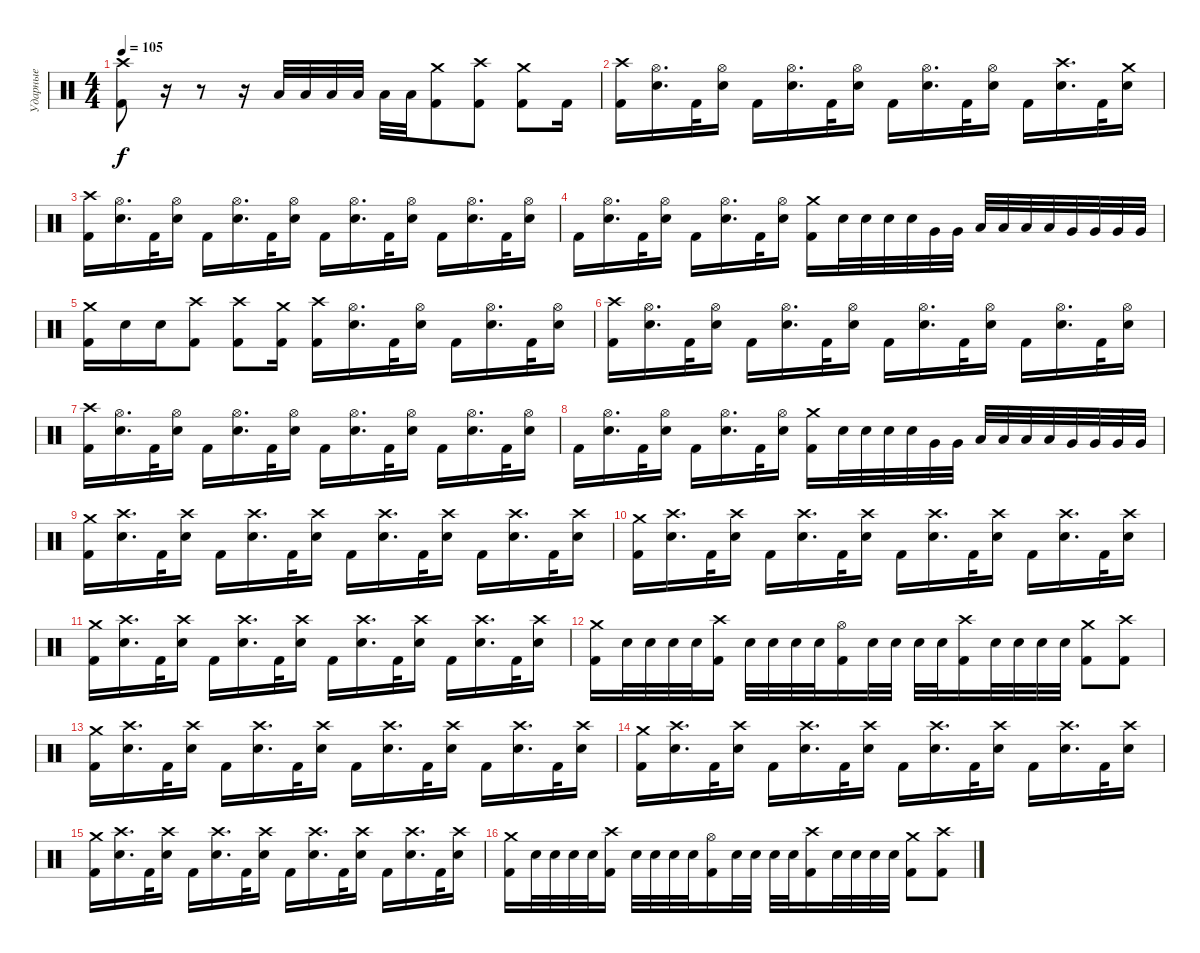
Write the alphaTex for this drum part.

\track ("Ударные" "Ударные") {instrument percussion}
\staff {score}
\articulation defaults
\ts (4 4)
\tempo 105
\clef neutral
\ks c
("Crash high (hit)" "Kick (hit) 2").8{dy f} r.16{volume 0} r.8 r.16 "Low Tom (hit)".32{volume 13} "Low Tom (hit)".32 "Low Tom (hit)".32 "Low Tom (hit)".32 "Low Tom (hit)".32 "Low Tom (hit)".32 ("Crash medium (hit)" "Kick (hit) 2").8 ("Crash high (hit)" "Kick (hit) 2").8 ("Crash medium (hit)" "Kick (hit) 2").8 "Kick (hit) 2".16 |
("Crash high (hit)" "Kick (hit) 2").16 ("Hi-Hat (open)" "Electric Snare (hit)").16{d} "Kick (hit) 2".32 ("Hi-Hat (open)" "Electric Snare (hit)").16 "Kick (hit) 2".16 ("Hi-Hat (open)" "Electric Snare (hit)").16{d} "Kick (hit) 2".32 ("Hi-Hat (open)" "Electric Snare (hit)").16 "Kick (hit) 2".16 ("Hi-Hat (open)" "Electric Snare (hit)").16{d} "Kick (hit) 2".32 ("Hi-Hat (open)" "Electric Snare (hit)").16 "Kick (hit) 2".16 ("Crash high (hit)" "Electric Snare (hit)").16{d} "Kick (hit) 2".32 ("Crash medium (hit)" "Electric Snare (hit)").16 |
("Crash high (hit)" "Kick (hit) 2").16 ("Hi-Hat (open)" "Electric Snare (hit)").16{d} "Kick (hit) 2".32 ("Hi-Hat (open)" "Electric Snare (hit)").16 "Kick (hit) 2".16 ("Hi-Hat (open)" "Electric Snare (hit)").16{d} "Kick (hit) 2".32 ("Hi-Hat (open)" "Electric Snare (hit)").16 "Kick (hit) 2".16 ("Hi-Hat (open)" "Electric Snare (hit)").16{d} "Kick (hit) 2".32 ("Hi-Hat (open)" "Electric Snare (hit)").16 "Kick (hit) 2".16 ("Hi-Hat (open)" "Electric Snare (hit)").16{d} "Kick (hit) 2".32 ("Hi-Hat (open)" "Electric Snare (hit)").16 |
"Kick (hit) 2".16 ("Hi-Hat (open)" "Electric Snare (hit)").16{d} "Kick (hit) 2".32 ("Hi-Hat (open)" "Electric Snare (hit)").16 "Kick (hit) 2".16 ("Hi-Hat (open)" "Electric Snare (hit)").16{d} "Kick (hit) 2".32 ("Hi-Hat (open)" "Electric Snare (hit)").16 ("Crash medium (hit)" "Kick (hit) 2").16 "Electric Snare (hit)".32 "Electric Snare (hit)".32 "Electric Snare (hit)".32 "Electric Snare (hit)".32 "Very Low Tom (hit)".32 "Very Low Tom (hit)".32 "Low Floor Tom (hit)".32 "Low Floor Tom (hit)".32 "Low Floor Tom (hit)".32 "Low Floor Tom (hit)".32 "Very Low Tom (hit)".32 "Very Low Tom (hit)".32 "Very Low Tom (hit)".32 "Very Low Tom (hit)".32 |
("Crash medium (hit)" "Kick (hit) 2").16 "Electric Snare (hit)".16 "Electric Snare (hit)".16 ("Crash high (hit)" "Kick (hit) 2").8 ("Crash high (hit)" "Kick (hit) 2").8 ("Crash medium (hit)" "Kick (hit) 2").16 ("Crash high (hit)" "Kick (hit) 2").16 ("Hi-Hat (open)" "Electric Snare (hit)").16{d} "Kick (hit) 2".32 ("Hi-Hat (open)" "Electric Snare (hit)").16 "Kick (hit) 2".16 ("Hi-Hat (open)" "Electric Snare (hit)").16{d} "Kick (hit) 2".32 ("Hi-Hat (open)" "Electric Snare (hit)").16 |
("Crash high (hit)" "Kick (hit) 2").16 ("Hi-Hat (open)" "Electric Snare (hit)").16{d} "Kick (hit) 2".32 ("Hi-Hat (open)" "Electric Snare (hit)").16 "Kick (hit) 2".16 ("Hi-Hat (open)" "Electric Snare (hit)").16{d} "Kick (hit) 2".32 ("Hi-Hat (open)" "Electric Snare (hit)").16 "Kick (hit) 2".16 ("Hi-Hat (open)" "Electric Snare (hit)").16{d} "Kick (hit) 2".32 ("Hi-Hat (open)" "Electric Snare (hit)").16 "Kick (hit) 2".16 ("Hi-Hat (open)" "Electric Snare (hit)").16{d} "Kick (hit) 2".32 ("Hi-Hat (open)" "Electric Snare (hit)").16 |
("Crash high (hit)" "Kick (hit) 2").16 ("Hi-Hat (open)" "Electric Snare (hit)").16{d} "Kick (hit) 2".32 ("Hi-Hat (open)" "Electric Snare (hit)").16 "Kick (hit) 2".16 ("Hi-Hat (open)" "Electric Snare (hit)").16{d} "Kick (hit) 2".32 ("Hi-Hat (open)" "Electric Snare (hit)").16 "Kick (hit) 2".16 ("Hi-Hat (open)" "Electric Snare (hit)").16{d} "Kick (hit) 2".32 ("Hi-Hat (open)" "Electric Snare (hit)").16 "Kick (hit) 2".16 ("Hi-Hat (open)" "Electric Snare (hit)").16{d} "Kick (hit) 2".32 ("Hi-Hat (open)" "Electric Snare (hit)").16 |
"Kick (hit) 2".16 ("Hi-Hat (open)" "Electric Snare (hit)").16{d} "Kick (hit) 2".32 ("Hi-Hat (open)" "Electric Snare (hit)").16 "Kick (hit) 2".16 ("Hi-Hat (open)" "Electric Snare (hit)").16{d} "Kick (hit) 2".32 ("Hi-Hat (open)" "Electric Snare (hit)").16 ("Crash medium (hit)" "Kick (hit) 2").16 "Electric Snare (hit)".32 "Electric Snare (hit)".32 "Electric Snare (hit)".32 "Electric Snare (hit)".32 "Very Low Tom (hit)".32 "Very Low Tom (hit)".32 "Low Floor Tom (hit)".32 "Low Floor Tom (hit)".32 "Low Floor Tom (hit)".32 "Low Floor Tom (hit)".32 "Very Low Tom (hit)".32 "Very Low Tom (hit)".32 "Very Low Tom (hit)".32 "Very Low Tom (hit)".32 |
("Crash medium (hit)" "Kick (hit) 2").16 ("Crash high (hit)" "Electric Snare (hit)").16{d} "Kick (hit) 2".32 ("Crash high (hit)" "Electric Snare (hit)").16 "Kick (hit) 2".16 ("Crash high (hit)" "Electric Snare (hit)").16{d} "Kick (hit) 2".32 ("Crash high (hit)" "Electric Snare (hit)").16 "Kick (hit) 2".16 ("Crash high (hit)" "Electric Snare (hit)").16{d} "Kick (hit) 2".32 ("Crash high (hit)" "Electric Snare (hit)").16 "Kick (hit) 2".16 ("Crash high (hit)" "Electric Snare (hit)").16{d} "Kick (hit) 2".32 ("Crash high (hit)" "Electric Snare (hit)").16 |
("Crash medium (hit)" "Kick (hit) 2").16 ("Crash high (hit)" "Electric Snare (hit)").16{d} "Kick (hit) 2".32 ("Crash high (hit)" "Electric Snare (hit)").16 "Kick (hit) 2".16 ("Crash high (hit)" "Electric Snare (hit)").16{d} "Kick (hit) 2".32 ("Crash high (hit)" "Electric Snare (hit)").16 "Kick (hit) 2".16 ("Crash high (hit)" "Electric Snare (hit)").16{d} "Kick (hit) 2".32 ("Crash high (hit)" "Electric Snare (hit)").16 "Kick (hit) 2".16 ("Crash high (hit)" "Electric Snare (hit)").16{d} "Kick (hit) 2".32 ("Crash high (hit)" "Electric Snare (hit)").16 |
("Crash medium (hit)" "Kick (hit) 2").16 ("Crash high (hit)" "Electric Snare (hit)").16{d} "Kick (hit) 2".32 ("Crash high (hit)" "Electric Snare (hit)").16 "Kick (hit) 2".16 ("Crash high (hit)" "Electric Snare (hit)").16{d} "Kick (hit) 2".32 ("Crash high (hit)" "Electric Snare (hit)").16 "Kick (hit) 2".16 ("Crash high (hit)" "Electric Snare (hit)").16{d} "Kick (hit) 2".32 ("Crash high (hit)" "Electric Snare (hit)").16 "Kick (hit) 2".16 ("Crash high (hit)" "Electric Snare (hit)").16{d} "Kick (hit) 2".32 ("Crash high (hit)" "Electric Snare (hit)").16 |
("Crash medium (hit)" "Kick (hit) 2").16 "Electric Snare (hit)".32 "Electric Snare (hit)".32 "Electric Snare (hit)".32 "Electric Snare (hit)".32 ("Crash high (hit)" "Kick (hit) 2").16 "Electric Snare (hit)".32 "Electric Snare (hit)".32 "Electric Snare (hit)".32 "Electric Snare (hit)".32 ("Hi-Hat (open)" "Kick (hit) 2").16 "Electric Snare (hit)".32 "Electric Snare (hit)".32 "Electric Snare (hit)".32 "Electric Snare (hit)".32 ("Crash high (hit)" "Kick (hit) 2").16 "Electric Snare (hit)".32 "Electric Snare (hit)".32 "Electric Snare (hit)".32 "Electric Snare (hit)".32 ("Crash medium (hit)" "Kick (hit) 2").8 ("Crash high (hit)" "Kick (hit) 2").8 |
("Crash medium (hit)" "Kick (hit) 2").16 ("Crash high (hit)" "Electric Snare (hit)").16{d} "Kick (hit) 2".32 ("Crash high (hit)" "Electric Snare (hit)").16 "Kick (hit) 2".16 ("Crash high (hit)" "Electric Snare (hit)").16{d} "Kick (hit) 2".32 ("Crash high (hit)" "Electric Snare (hit)").16 "Kick (hit) 2".16 ("Crash high (hit)" "Electric Snare (hit)").16{d} "Kick (hit) 2".32 ("Crash high (hit)" "Electric Snare (hit)").16 "Kick (hit) 2".16 ("Crash high (hit)" "Electric Snare (hit)").16{d} "Kick (hit) 2".32 ("Crash high (hit)" "Electric Snare (hit)").16 |
("Crash medium (hit)" "Kick (hit) 2").16 ("Crash high (hit)" "Electric Snare (hit)").16{d} "Kick (hit) 2".32 ("Crash high (hit)" "Electric Snare (hit)").16 "Kick (hit) 2".16 ("Crash high (hit)" "Electric Snare (hit)").16{d} "Kick (hit) 2".32 ("Crash high (hit)" "Electric Snare (hit)").16 "Kick (hit) 2".16 ("Crash high (hit)" "Electric Snare (hit)").16{d} "Kick (hit) 2".32 ("Crash high (hit)" "Electric Snare (hit)").16 "Kick (hit) 2".16 ("Crash high (hit)" "Electric Snare (hit)").16{d} "Kick (hit) 2".32 ("Crash high (hit)" "Electric Snare (hit)").16 |
("Crash medium (hit)" "Kick (hit) 2").16 ("Crash high (hit)" "Electric Snare (hit)").16{d} "Kick (hit) 2".32 ("Crash high (hit)" "Electric Snare (hit)").16 "Kick (hit) 2".16 ("Crash high (hit)" "Electric Snare (hit)").16{d} "Kick (hit) 2".32 ("Crash high (hit)" "Electric Snare (hit)").16 "Kick (hit) 2".16 ("Crash high (hit)" "Electric Snare (hit)").16{d} "Kick (hit) 2".32 ("Crash high (hit)" "Electric Snare (hit)").16 "Kick (hit) 2".16 ("Crash high (hit)" "Electric Snare (hit)").16{d} "Kick (hit) 2".32 ("Crash high (hit)" "Electric Snare (hit)").16 |
("Crash medium (hit)" "Kick (hit) 2").16 "Electric Snare (hit)".32 "Electric Snare (hit)".32 "Electric Snare (hit)".32 "Electric Snare (hit)".32 ("Crash high (hit)" "Kick (hit) 2").16 "Electric Snare (hit)".32 "Electric Snare (hit)".32 "Electric Snare (hit)".32 "Electric Snare (hit)".32 ("Hi-Hat (open)" "Kick (hit) 2").16 "Electric Snare (hit)".32 "Electric Snare (hit)".32 "Electric Snare (hit)".32 "Electric Snare (hit)".32 ("Crash high (hit)" "Kick (hit) 2").16 "Electric Snare (hit)".32 "Electric Snare (hit)".32 "Electric Snare (hit)".32 "Electric Snare (hit)".32 ("Crash medium (hit)" "Kick (hit) 2").8 ("Crash high (hit)" "Kick (hit) 2").8
